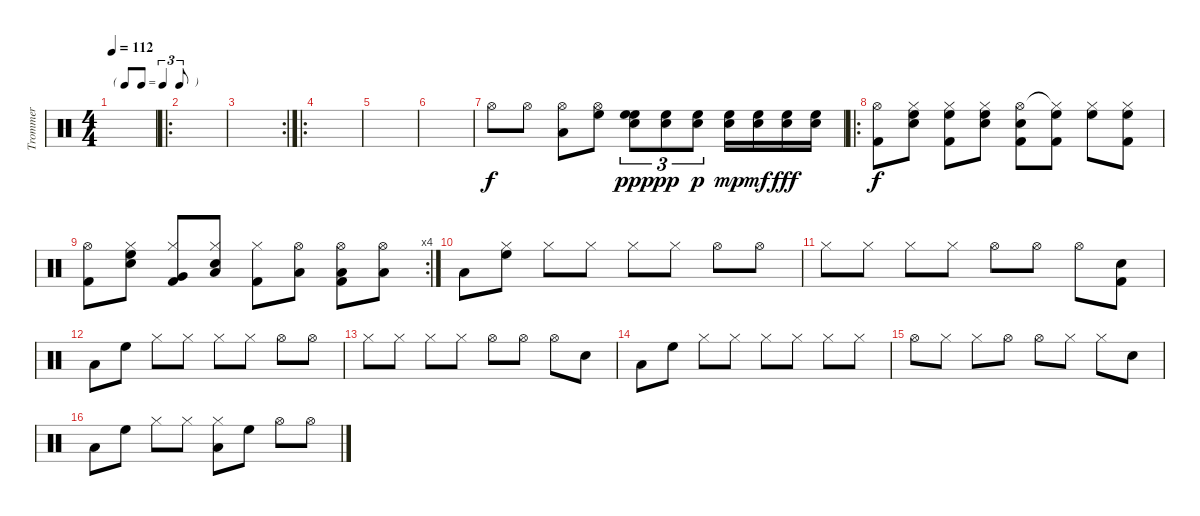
\track ("Trommer" "Trommer") {instrument percussion}
\staff {score}
\articulation defaults
\ts (4 4)
\tf triplet8th
\tempo 112
\clef neutral
\ks c
|
\ro
|
\rc 2
|
\ro
|
|
|
"Hi-Hat (open)".8 "Hi-Hat (open)".8 ("Hi-Hat (open)" "Low Tom (hit)").8 ("Hi-Hat (open)" "High Floor Tom (hit)").8 ("Snare (hit) 2" "High Floor Tom (hit)" "High Floor Tom (hit)").8{tu (3 2) dy ppp} ("Snare (hit) 2" "High Floor Tom (hit)").8{tu (3 2) dy pp} ("Snare (hit) 2" "High Floor Tom (hit)").8{tu (3 2) dy p} ("Snare (hit) 2" "High Floor Tom (hit)").16{dy mp} ("Snare (hit) 2" "High Floor Tom (hit)").16{dy mf} ("Snare (hit) 2" "High Floor Tom (hit)").16{dy fff} ("Snare (hit) 2" "High Floor Tom (hit)").16 |
\ro
("Hi-Hat (open)" "Kick (hit) 2").8{dy f} ("Hi-Hat (closed)" "Electric Snare (hit)" "High Floor Tom (hit)").8 ("Hi-Hat (closed)" "High Floor Tom (hit)" "Kick (hit) 2").8 ("Hi-Hat (closed)" "Electric Snare (hit)" "High Floor Tom (hit)").8 ("Hi-Hat (open)" "Snare (hit) 2" "Kick (hit) 2").8 ("Hi-Hat (closed)"{t} "High Floor Tom (hit)" "Kick (hit) 2").8 ("Hi-Hat (closed)" "High Floor Tom (hit)").8 ("Hi-Hat (closed)" "High Floor Tom (hit)" "Kick (hit) 2").8 |
\rc 4
("Hi-Hat (open)" "Kick (hit) 2").8 ("Hi-Hat (closed)" "High Floor Tom (hit)" "Electric Snare (hit)").8 ("Hi-Hat (closed)" "Very Low Tom (hit)" "Kick (hit) 2").8 ("Hi-Hat (closed)" "Electric Snare (hit)" "Low Tom (hit)").8 ("Hi-Hat (closed)" "Kick (hit) 2").8 ("Hi-Hat (open)" "Low Floor Tom (hit)").8 ("Hi-Hat (open)" "Low Floor Tom (hit)" "Kick (hit) 2").8 ("Hi-Hat (open)" "Low Floor Tom (hit)").8 |
"Low Tom (hit)".8 ("Hi-Hat (closed)" "High Floor Tom (hit)").8 "Hi-Hat (closed)".8 "Hi-Hat (closed)".8 "Hi-Hat (closed)".8 "Hi-Hat (closed)".8 "Hi-Hat (open)".8 "Hi-Hat (open)".8 |
"Hi-Hat (closed)".8 "Hi-Hat (closed)".8 "Hi-Hat (closed)".8 "Hi-Hat (closed)".8 "Hi-Hat (open)".8 "Hi-Hat (open)".8 "Hi-Hat (open)".8 ("Snare (hit) 2" "Kick (hit) 2").8 |
"Low Tom (hit)".8 "High Floor Tom (hit)".8 "Hi-Hat (closed)".8 "Hi-Hat (closed)".8 "Hi-Hat (closed)".8 "Hi-Hat (closed)".8 "Hi-Hat (open)".8 "Hi-Hat (open)".8 |
"Hi-Hat (closed)".8 "Hi-Hat (closed)".8 "Hi-Hat (closed)".8 "Hi-Hat (closed)".8 "Hi-Hat (open)".8 "Hi-Hat (open)".8 "Hi-Hat (open)".8 "Snare (hit) 2".8 |
"Low Tom (hit)".8 "High Floor Tom (hit)".8 "Hi-Hat (closed)".8 "Hi-Hat (closed)".8 "Hi-Hat (closed)".8 "Hi-Hat (closed)".8 "Hi-Hat (closed)".8 "Hi-Hat (closed)".8 |
"Hi-Hat (open)".8 "Hi-Hat (closed)".8 "Hi-Hat (closed)".8 "Hi-Hat (open)".8 "Hi-Hat (open)".8 "Hi-Hat (closed)".8 "Hi-Hat (closed)".8 "Snare (hit) 2".8 |
"Low Tom (hit)".8 "High Floor Tom (hit)".8 "Hi-Hat (closed)".8 "Hi-Hat (closed)".8 ("Hi-Hat (closed)" "Low Tom (hit)").8 "High Floor Tom (hit)".8 "Hi-Hat (open)".8 "Hi-Hat (open)".8
